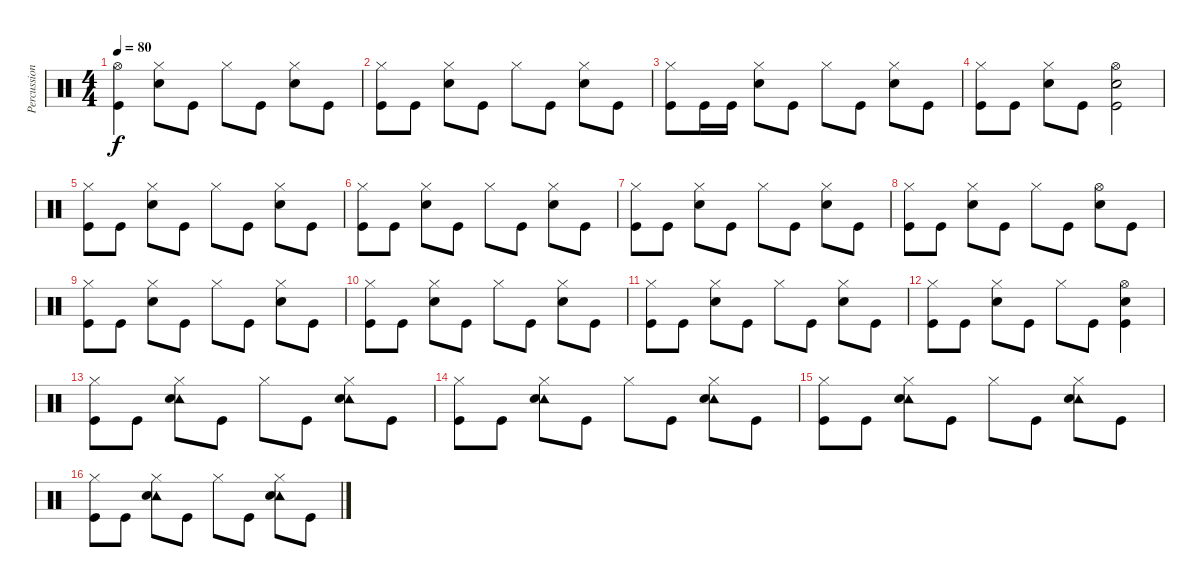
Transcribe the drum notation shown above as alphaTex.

\track ("Percussion" "Percussion") {instrument percussion}
\staff {score}
\articulation defaults
\ts (4 4)
\tempo 80
\clef neutral
\ks c
("Hi-Hat (open)" "Kick (hit)").4{dy f} ("Hi-Hat (closed)" "Electric Snare (hit)").8 "Kick (hit)".8 "Hi-Hat (closed)".8 "Kick (hit)".8 ("Hi-Hat (closed)" "Electric Snare (hit)").8 "Kick (hit)".8 |
("Hi-Hat (closed)" "Kick (hit)").8 "Kick (hit)".8 ("Hi-Hat (closed)" "Electric Snare (hit)").8 "Kick (hit)".8 "Hi-Hat (closed)".8 "Kick (hit)".8 ("Hi-Hat (closed)" "Electric Snare (hit)").8 "Kick (hit)".8 |
("Hi-Hat (closed)" "Kick (hit)").8 "Kick (hit)".16 "Kick (hit)".16 ("Hi-Hat (closed)" "Electric Snare (hit)").8 "Kick (hit)".8 "Hi-Hat (closed)".8 "Kick (hit)".8 ("Hi-Hat (closed)" "Electric Snare (hit)").8 "Kick (hit)".8 |
("Hi-Hat (closed)" "Kick (hit)").8 "Kick (hit)".8 ("Hi-Hat (closed)" "Electric Snare (hit)").8 "Kick (hit)".8 ("Hi-Hat (open)" "Electric Snare (hit)" "Kick (hit)").2 |
("Hi-Hat (closed)" "Kick (hit)").8 "Kick (hit)".8 ("Hi-Hat (closed)" "Electric Snare (hit)").8 "Kick (hit)".8 "Hi-Hat (closed)".8 "Kick (hit)".8 ("Hi-Hat (closed)" "Electric Snare (hit)").8 "Kick (hit)".8 |
("Hi-Hat (closed)" "Kick (hit)").8 "Kick (hit)".8 ("Hi-Hat (closed)" "Electric Snare (hit)").8 "Kick (hit)".8 "Hi-Hat (closed)".8 "Kick (hit)".8 ("Hi-Hat (closed)" "Electric Snare (hit)").8 "Kick (hit)".8 |
("Hi-Hat (closed)" "Kick (hit)").8 "Kick (hit)".8 ("Hi-Hat (closed)" "Electric Snare (hit)").8 "Kick (hit)".8 "Hi-Hat (closed)".8 "Kick (hit)".8 ("Hi-Hat (closed)" "Electric Snare (hit)").8 "Kick (hit)".8 |
("Hi-Hat (closed)" "Kick (hit)").8 "Kick (hit)".8 ("Hi-Hat (closed)" "Electric Snare (hit)").8 "Kick (hit)".8 "Hi-Hat (closed)".8 "Kick (hit)".8 ("Hi-Hat (open)" "Electric Snare (hit)").8 "Kick (hit)".8 |
("Hi-Hat (closed)" "Kick (hit)").8 "Kick (hit)".8 ("Hi-Hat (closed)" "Electric Snare (hit)").8 "Kick (hit)".8 "Hi-Hat (closed)".8 "Kick (hit)".8 ("Hi-Hat (closed)" "Electric Snare (hit)").8 "Kick (hit)".8 |
("Hi-Hat (closed)" "Kick (hit)").8 "Kick (hit)".8 ("Hi-Hat (closed)" "Electric Snare (hit)").8 "Kick (hit)".8 "Hi-Hat (closed)".8 "Kick (hit)".8 ("Hi-Hat (closed)" "Electric Snare (hit)").8 "Kick (hit)".8 |
("Hi-Hat (closed)" "Kick (hit)").8 "Kick (hit)".8 ("Hi-Hat (closed)" "Electric Snare (hit)").8 "Kick (hit)".8 "Hi-Hat (closed)".8 "Kick (hit)".8 ("Hi-Hat (closed)" "Electric Snare (hit)").8 "Kick (hit)".8 |
("Hi-Hat (closed)" "Kick (hit)").8 "Kick (hit)".8 ("Hi-Hat (closed)" "Electric Snare (hit)").8 "Kick (hit)".8 "Hi-Hat (closed)".8 "Kick (hit)".8 ("Hi-Hat (open)" "Electric Snare (hit)" "Kick (hit)").4 |
("Hi-Hat (closed)" "Kick (hit)").8 "Kick (hit)".8 ("Hi-Hat (closed)" "Tambourine (hit)" "Electric Snare (hit)").8 "Kick (hit)".8 "Hi-Hat (closed)".8 "Kick (hit)".8 ("Hi-Hat (closed)" "Tambourine (hit)" "Electric Snare (hit)").8 "Kick (hit)".8 |
("Hi-Hat (closed)" "Kick (hit)").8 "Kick (hit)".8 ("Hi-Hat (closed)" "Tambourine (hit)" "Electric Snare (hit)").8 "Kick (hit)".8 "Hi-Hat (closed)".8 "Kick (hit)".8 ("Hi-Hat (closed)" "Tambourine (hit)" "Electric Snare (hit)").8 "Kick (hit)".8 |
("Hi-Hat (closed)" "Kick (hit)").8 "Kick (hit)".8 ("Hi-Hat (closed)" "Tambourine (hit)" "Electric Snare (hit)").8 "Kick (hit)".8 "Hi-Hat (closed)".8 "Kick (hit)".8 ("Hi-Hat (closed)" "Tambourine (hit)" "Electric Snare (hit)").8 "Kick (hit)".8 |
("Hi-Hat (closed)" "Kick (hit)").8 "Kick (hit)".8 ("Hi-Hat (closed)" "Tambourine (hit)" "Electric Snare (hit)").8 "Kick (hit)".8 "Hi-Hat (closed)".8 "Kick (hit)".8 ("Hi-Hat (closed)" "Tambourine (hit)" "Electric Snare (hit)").8 "Kick (hit)".8
